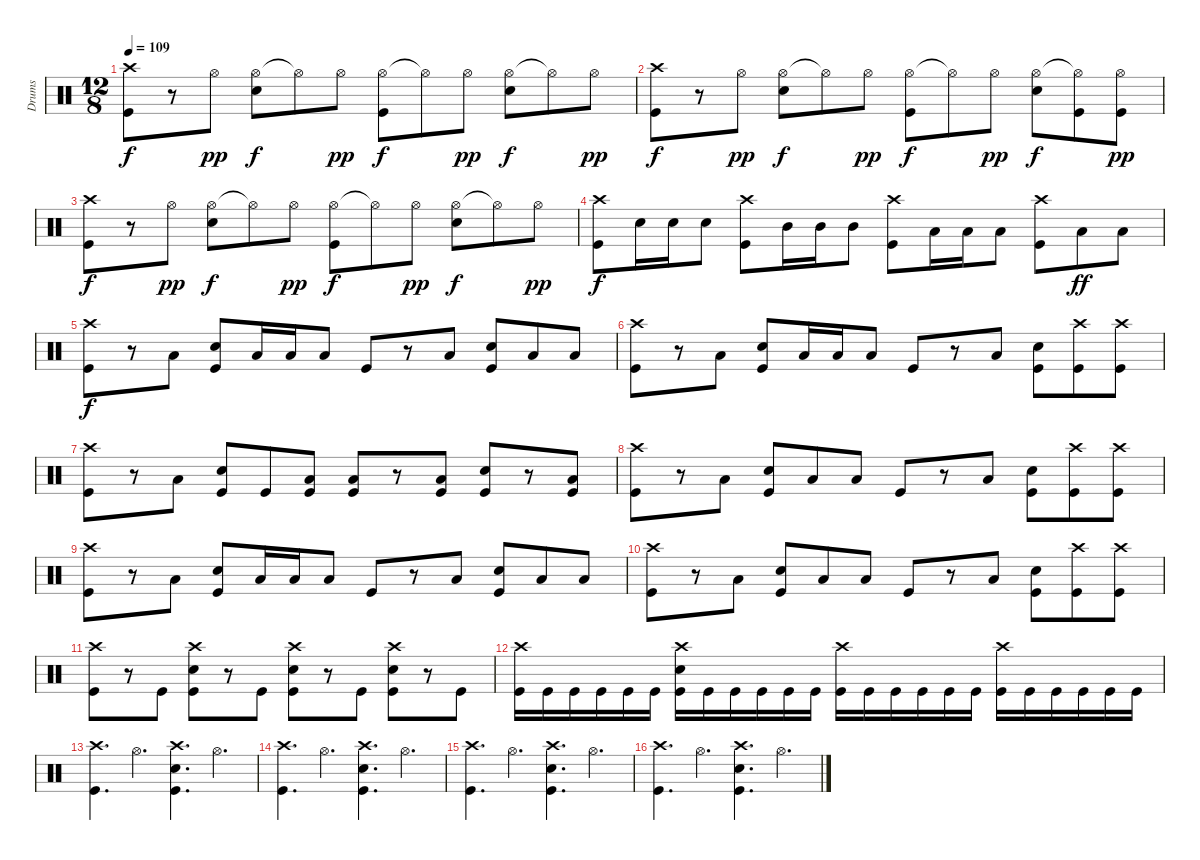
\track ("Drums" "Drums") {instrument percussion}
\staff {score}
\articulation defaults
\ts (12 8)
\tempo 109
\clef neutral
\ks c
("Crash high (hit)" "Kick (hit)").8{dy f} r.8 "Hi-Hat (open)".8{dy pp} ("Hi-Hat (open)" "Snare (hit) 2").8{dy f} "Hi-Hat (open)"{t}.8 "Hi-Hat (open)".8{dy pp} ("Hi-Hat (open)" "Kick (hit)").8{dy f} "Hi-Hat (open)"{t}.8 "Hi-Hat (open)".8{dy pp} ("Hi-Hat (open)" "Snare (hit) 2").8{dy f} "Hi-Hat (open)"{t}.8 "Hi-Hat (open)".8{dy pp} |
("Crash high (hit)" "Kick (hit)").8{dy f} r.8 "Hi-Hat (open)".8{dy pp} ("Hi-Hat (open)" "Snare (hit) 2").8{dy f} "Hi-Hat (open)"{t}.8 "Hi-Hat (open)".8{dy pp} ("Hi-Hat (open)" "Kick (hit)").8{dy f} "Hi-Hat (open)"{t}.8 "Hi-Hat (open)".8{dy pp} ("Hi-Hat (open)" "Snare (hit) 2").8{dy f} ("Hi-Hat (open)"{t} "Kick (hit)").8 ("Hi-Hat (open)" "Kick (hit)").8{dy pp} |
("Crash high (hit)" "Kick (hit)").8{dy f} r.8 "Hi-Hat (open)".8{dy pp} ("Hi-Hat (open)" "Snare (hit) 2").8{dy f} "Hi-Hat (open)"{t}.8 "Hi-Hat (open)".8{dy pp} ("Hi-Hat (open)" "Kick (hit)").8{dy f} "Hi-Hat (open)"{t}.8 "Hi-Hat (open)".8{dy pp} ("Hi-Hat (open)" "Snare (hit) 2").8{dy f} "Hi-Hat (open)"{t}.8 "Hi-Hat (open)".8{dy pp} |
("Crash high (hit)" "Kick (hit)").8{dy f} "Snare (hit) 2".16 "Snare (hit) 2".16 "Snare (hit) 2".8 ("Crash high (hit)" "Kick (hit)").8 "Mid Tom (hit)".16 "Mid Tom (hit)".16 "Mid Tom (hit)".8 ("Crash high (hit)" "Kick (hit)").8 "Low Tom (hit)".16 "Low Tom (hit)".16 "Low Tom (hit)".8 ("Crash high (hit)" "Kick (hit)").8 "Low Floor Tom (hit)".8{dy ff} "Low Floor Tom (hit)".8 |
("Crash high (hit)" "Kick (hit)").8{dy f} r.8 "Low Tom (hit)".8 ("Snare (hit) 2" "Kick (hit)").8 "Low Floor Tom (hit)".16 "Low Floor Tom (hit)".16 "Low Floor Tom (hit)".8 "Kick (hit)".8 r.8 "Low Tom (hit)".8 ("Snare (hit) 2" "Kick (hit)").8 "Low Floor Tom (hit)".8 "Low Floor Tom (hit)".8 |
("Crash high (hit)" "Kick (hit)").8 r.8 "Low Tom (hit)".8 ("Snare (hit) 2" "Kick (hit)").8 "Low Floor Tom (hit)".16 "Low Floor Tom (hit)".16 "Low Floor Tom (hit)".8 "Kick (hit)".8 r.8 "Low Tom (hit)".8 ("Snare (hit) 2" "Kick (hit)").8 ("Crash high (hit)" "Kick (hit)").8 ("Crash high (hit)" "Kick (hit)").8 |
("Crash high (hit)" "Kick (hit)").8 r.8 "Low Floor Tom (hit)".8 ("Snare (hit) 2" "Kick (hit)").8 "Kick (hit)".8 ("Low Floor Tom (hit)" "Kick (hit)").8 ("Low Floor Tom (hit)" "Kick (hit)").8 r.8 ("Low Tom (hit)" "Kick (hit)").8 ("Snare (hit) 2" "Kick (hit)").8 r.8 ("Low Floor Tom (hit)" "Kick (hit)").8 |
("Crash high (hit)" "Kick (hit)").8 r.8 "Low Tom (hit)".8 ("Snare (hit) 2" "Kick (hit)").8 "Low Floor Tom (hit)".8 "Low Floor Tom (hit)".8 "Kick (hit)".8 r.8 "Low Tom (hit)".8 ("Snare (hit) 2" "Kick (hit)").8 ("Crash high (hit)" "Kick (hit)").8 ("Crash high (hit)" "Kick (hit)").8 |
("Crash high (hit)" "Kick (hit)").8 r.8 "Low Tom (hit)".8 ("Snare (hit) 2" "Kick (hit)").8 "Low Floor Tom (hit)".16 "Low Floor Tom (hit)".16 "Low Floor Tom (hit)".8 "Kick (hit)".8 r.8 "Low Tom (hit)".8 ("Snare (hit) 2" "Kick (hit)").8 "Low Floor Tom (hit)".8 "Low Floor Tom (hit)".8 |
("Crash high (hit)" "Kick (hit)").8 r.8 "Low Tom (hit)".8 ("Snare (hit) 2" "Kick (hit)").8 "Low Floor Tom (hit)".8 "Low Floor Tom (hit)".8 "Kick (hit)".8 r.8 "Low Tom (hit)".8 ("Snare (hit) 2" "Kick (hit)").8 ("Crash high (hit)" "Kick (hit)").8 ("Crash high (hit)" "Kick (hit)").8 |
("Crash high (hit)" "Kick (hit)").8 r.8 "Kick (hit)".8 ("Crash high (hit)" "Snare (hit) 2" "Kick (hit)").8 r.8 "Kick (hit)".8 ("Crash high (hit)" "Snare (hit) 2" "Kick (hit)").8 r.8 "Kick (hit)".8 ("Crash high (hit)" "Snare (hit) 2" "Kick (hit)").8 r.8 "Kick (hit)".8 |
("Crash high (hit)" "Kick (hit)").16 "Kick (hit)".16 "Kick (hit)".16 "Kick (hit)".16 "Kick (hit)".16 "Kick (hit)".16 ("Crash high (hit)" "Snare (hit) 2" "Kick (hit)").16 "Kick (hit)".16 "Kick (hit)".16 "Kick (hit)".16 "Kick (hit)".16 "Kick (hit)".16 ("Crash high (hit)" "Kick (hit)").16 "Kick (hit)".16 "Kick (hit)".16 "Kick (hit)".16 "Kick (hit)".16 "Kick (hit)".16 ("Crash high (hit)" "Kick (hit)").16 "Kick (hit)".16 "Kick (hit)".16 "Kick (hit)".16 "Kick (hit)".16 "Kick (hit)".16 |
("Crash high (hit)" "Kick (hit)").4{d} "Hi-Hat (open)".4{d} ("Crash high (hit)" "Snare (hit) 2" "Kick (hit)").4{d} "Hi-Hat (open)".4{d} |
("Crash high (hit)" "Kick (hit)").4{d} "Hi-Hat (open)".4{d} ("Crash high (hit)" "Snare (hit) 2" "Kick (hit)").4{d} "Hi-Hat (open)".4{d} |
("Crash high (hit)" "Kick (hit)").4{d} "Hi-Hat (open)".4{d} ("Crash high (hit)" "Snare (hit) 2" "Kick (hit)").4{d} "Hi-Hat (open)".4{d} |
("Crash high (hit)" "Kick (hit)").4{d} "Hi-Hat (open)".4{d} ("Crash high (hit)" "Snare (hit) 2" "Kick (hit)").4{d} "Hi-Hat (open)".4{d}
